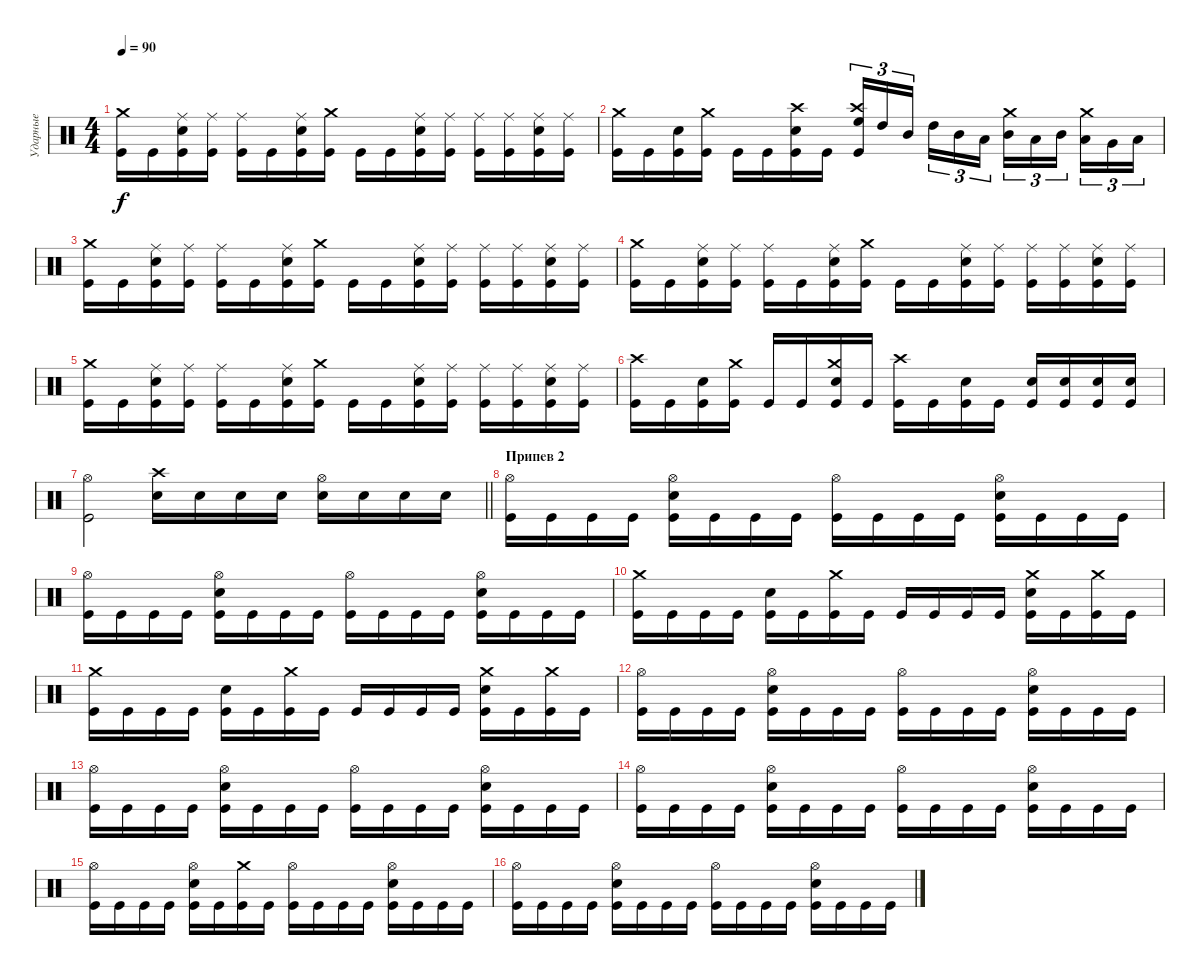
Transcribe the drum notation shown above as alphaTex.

\track ("Ударные" "Ударные") {instrument percussion}
\staff {score}
\articulation defaults
\ts (4 4)
\tempo 90
\clef neutral
\ks c
("Kick (hit)" "Crash medium (hit)").16{dy f} "Kick (hit)".16 ("Kick (hit)" "Electric Snare (hit)" "Ride (middle)").16 ("Kick (hit)" "Ride (middle)").16 ("Kick (hit)" "Ride (middle)").16 "Kick (hit)".16 ("Kick (hit)" "Ride (middle)" "Electric Snare (hit)").16 ("Kick (hit)" "Crash medium (hit)").16 "Kick (hit)".16 "Kick (hit)".16 ("Kick (hit)" "Ride (middle)" "Electric Snare (hit)").16 ("Kick (hit)" "Ride (middle)").16 ("Kick (hit)" "Ride (middle)").16 ("Kick (hit)" "Ride (middle)").16 ("Kick (hit)" "Ride (middle)" "Electric Snare (hit)").16 ("Kick (hit)" "Ride (middle)").16 |
("Kick (hit)" "Crash medium (hit)").16 "Kick (hit)".16 ("Kick (hit)" "Electric Snare (hit)").16 ("Kick (hit)" "Crash medium (hit)").16 "Kick (hit)".16 "Kick (hit)".16 ("Kick (hit)" "Crash high (hit)" "Electric Snare (hit)").16 "Kick (hit)".16 ("Kick (hit)" "Crash high (hit)" "High Floor Tom (hit)").16{tu (3 2)} "High Tom (hit)".16{tu (3 2)} "Mid Tom (hit)".16{tu (3 2) beam splitsecondary} "High Tom (hit)".16{tu (3 2)} "Mid Tom (hit)".16{tu (3 2)} "Low Tom (hit)".16{tu (3 2)} ("Mid Tom (hit)" "Crash medium (hit)").16{tu (3 2)} "Low Tom (hit)".16{tu (3 2)} "Mid Tom (hit)".16{tu (3 2) beam splitsecondary} ("Low Tom (hit)" "Crash medium (hit)").16{tu (3 2)} "Very Low Tom (hit)".16{tu (3 2)} "Low Floor Tom (hit)".16{tu (3 2)} |
("Kick (hit)" "Crash medium (hit)").16 "Kick (hit)".16 ("Kick (hit)" "Electric Snare (hit)" "Ride (middle)").16 ("Kick (hit)" "Ride (middle)").16 ("Kick (hit)" "Ride (middle)").16 "Kick (hit)".16 ("Kick (hit)" "Ride (middle)" "Electric Snare (hit)").16 ("Kick (hit)" "Crash medium (hit)").16 "Kick (hit)".16 "Kick (hit)".16 ("Kick (hit)" "Ride (middle)" "Electric Snare (hit)").16 ("Kick (hit)" "Ride (middle)").16 ("Kick (hit)" "Ride (middle)").16 ("Kick (hit)" "Ride (middle)").16 ("Kick (hit)" "Ride (middle)" "Electric Snare (hit)").16 ("Kick (hit)" "Ride (middle)").16 |
("Kick (hit)" "Crash medium (hit)").16 "Kick (hit)".16 ("Kick (hit)" "Electric Snare (hit)" "Ride (middle)").16 ("Kick (hit)" "Ride (middle)").16 ("Kick (hit)" "Ride (middle)").16 "Kick (hit)".16 ("Kick (hit)" "Ride (middle)" "Electric Snare (hit)").16 ("Kick (hit)" "Crash medium (hit)").16 "Kick (hit)".16 "Kick (hit)".16 ("Kick (hit)" "Ride (middle)" "Electric Snare (hit)").16 ("Kick (hit)" "Ride (middle)").16 ("Kick (hit)" "Ride (middle)").16 ("Kick (hit)" "Ride (middle)").16 ("Kick (hit)" "Ride (middle)" "Electric Snare (hit)").16 ("Kick (hit)" "Ride (middle)").16 |
("Kick (hit)" "Crash medium (hit)").16 "Kick (hit)".16 ("Kick (hit)" "Electric Snare (hit)" "Ride (middle)").16 ("Kick (hit)" "Ride (middle)").16 ("Kick (hit)" "Ride (middle)").16 "Kick (hit)".16 ("Kick (hit)" "Ride (middle)" "Electric Snare (hit)").16 ("Kick (hit)" "Crash medium (hit)").16 "Kick (hit)".16 "Kick (hit)".16 ("Kick (hit)" "Ride (middle)" "Electric Snare (hit)").16 ("Kick (hit)" "Ride (middle)").16 ("Kick (hit)" "Ride (middle)").16 ("Kick (hit)" "Ride (middle)").16 ("Kick (hit)" "Ride (middle)" "Electric Snare (hit)").16 ("Kick (hit)" "Ride (middle)").16 |
("Kick (hit)" "Crash high (hit)").16 "Kick (hit)".16 ("Kick (hit)" "Electric Snare (hit)").16 ("Kick (hit)" "Crash medium (hit)").16 "Kick (hit)".16 "Kick (hit)".16 ("Kick (hit)" "Crash medium (hit)" "Electric Snare (hit)").16 "Kick (hit)".16 ("Kick (hit)" "Crash high (hit)").16 "Kick (hit)".16 ("Kick (hit)" "Electric Snare (hit)").16 "Kick (hit)".16 ("Kick (hit)" "Electric Snare (hit)").16 ("Kick (hit)" "Electric Snare (hit)").16 ("Kick (hit)" "Electric Snare (hit)").16 ("Kick (hit)" "Electric Snare (hit)").16 |
\barLineRight lightlight
("Hi-Hat (open)" "Kick (hit)").2 ("Crash high (hit)" "Electric Snare (hit)").16 "Electric Snare (hit)".16 "Electric Snare (hit)".16 "Electric Snare (hit)".16 ("Hi-Hat (open)" "Electric Snare (hit)").16 "Electric Snare (hit)".16 "Electric Snare (hit)".16 "Electric Snare (hit)".16 |
\section ("" "Припев 2")
("Kick (hit)" "Hi-Hat (open)").16 "Kick (hit)".16 "Kick (hit)".16 "Kick (hit)".16 ("Kick (hit)" "Electric Snare (hit)" "Hi-Hat (open)").16 "Kick (hit)".16 "Kick (hit)".16 "Kick (hit)".16 ("Kick (hit)" "Hi-Hat (open)").16 "Kick (hit)".16 "Kick (hit)".16 "Kick (hit)".16 ("Kick (hit)" "Electric Snare (hit)" "Hi-Hat (open)").16 "Kick (hit)".16 "Kick (hit)".16 "Kick (hit)".16 |
("Kick (hit)" "Hi-Hat (open)").16 "Kick (hit)".16 "Kick (hit)".16 "Kick (hit)".16 ("Kick (hit)" "Electric Snare (hit)" "Hi-Hat (open)").16 "Kick (hit)".16 "Kick (hit)".16 "Kick (hit)".16 ("Kick (hit)" "Hi-Hat (open)").16 "Kick (hit)".16 "Kick (hit)".16 "Kick (hit)".16 ("Kick (hit)" "Electric Snare (hit)" "Hi-Hat (open)").16 "Kick (hit)".16 "Kick (hit)".16 "Kick (hit)".16 |
("Kick (hit)" "Crash medium (hit)").16 "Kick (hit)".16 "Kick (hit)".16 "Kick (hit)".16 ("Kick (hit)" "Electric Snare (hit)").16 "Kick (hit)".16 ("Kick (hit)" "Crash medium (hit)").16 "Kick (hit)".16 "Kick (hit)".16 "Kick (hit)".16 "Kick (hit)".16 "Kick (hit)".16 ("Kick (hit)" "Electric Snare (hit)" "Crash medium (hit)").16 "Kick (hit)".16 ("Kick (hit)" "Crash medium (hit)").16 "Kick (hit)".16 |
("Kick (hit)" "Crash medium (hit)").16 "Kick (hit)".16 "Kick (hit)".16 "Kick (hit)".16 ("Kick (hit)" "Electric Snare (hit)").16 "Kick (hit)".16 ("Kick (hit)" "Crash medium (hit)").16 "Kick (hit)".16 "Kick (hit)".16 "Kick (hit)".16 "Kick (hit)".16 "Kick (hit)".16 ("Kick (hit)" "Electric Snare (hit)" "Crash medium (hit)").16 "Kick (hit)".16 ("Kick (hit)" "Crash medium (hit)").16 "Kick (hit)".16 |
("Kick (hit)" "Hi-Hat (open)").16 "Kick (hit)".16 "Kick (hit)".16 "Kick (hit)".16 ("Kick (hit)" "Electric Snare (hit)" "Hi-Hat (open)").16 "Kick (hit)".16 "Kick (hit)".16 "Kick (hit)".16 ("Kick (hit)" "Hi-Hat (open)").16 "Kick (hit)".16 "Kick (hit)".16 "Kick (hit)".16 ("Kick (hit)" "Electric Snare (hit)" "Hi-Hat (open)").16 "Kick (hit)".16 "Kick (hit)".16 "Kick (hit)".16 |
("Kick (hit)" "Hi-Hat (open)").16 "Kick (hit)".16 "Kick (hit)".16 "Kick (hit)".16 ("Kick (hit)" "Electric Snare (hit)" "Hi-Hat (open)").16 "Kick (hit)".16 "Kick (hit)".16 "Kick (hit)".16 ("Kick (hit)" "Hi-Hat (open)").16 "Kick (hit)".16 "Kick (hit)".16 "Kick (hit)".16 ("Kick (hit)" "Electric Snare (hit)" "Hi-Hat (open)").16 "Kick (hit)".16 "Kick (hit)".16 "Kick (hit)".16 |
("Kick (hit)" "Hi-Hat (open)").16 "Kick (hit)".16 "Kick (hit)".16 "Kick (hit)".16 ("Kick (hit)" "Electric Snare (hit)" "Hi-Hat (open)").16 "Kick (hit)".16 "Kick (hit)".16 "Kick (hit)".16 ("Kick (hit)" "Hi-Hat (open)").16 "Kick (hit)".16 "Kick (hit)".16 "Kick (hit)".16 ("Kick (hit)" "Electric Snare (hit)" "Hi-Hat (open)").16 "Kick (hit)".16 "Kick (hit)".16 "Kick (hit)".16 |
("Kick (hit)" "Hi-Hat (open)").16 "Kick (hit)".16 "Kick (hit)".16 "Kick (hit)".16 ("Kick (hit)" "Electric Snare (hit)" "Hi-Hat (open)").16 "Kick (hit)".16 ("Kick (hit)" "Crash medium (hit)").16 "Kick (hit)".16 ("Kick (hit)" "Hi-Hat (open)").16 "Kick (hit)".16 "Kick (hit)".16 "Kick (hit)".16 ("Kick (hit)" "Electric Snare (hit)" "Hi-Hat (open)").16 "Kick (hit)".16 "Kick (hit)".16 "Kick (hit)".16 |
("Kick (hit)" "Hi-Hat (open)").16 "Kick (hit)".16 "Kick (hit)".16 "Kick (hit)".16 ("Kick (hit)" "Electric Snare (hit)" "Hi-Hat (open)").16 "Kick (hit)".16 "Kick (hit)".16 "Kick (hit)".16 ("Kick (hit)" "Hi-Hat (open)").16 "Kick (hit)".16 "Kick (hit)".16 "Kick (hit)".16 ("Kick (hit)" "Electric Snare (hit)" "Hi-Hat (open)").16 "Kick (hit)".16 "Kick (hit)".16 "Kick (hit)".16
